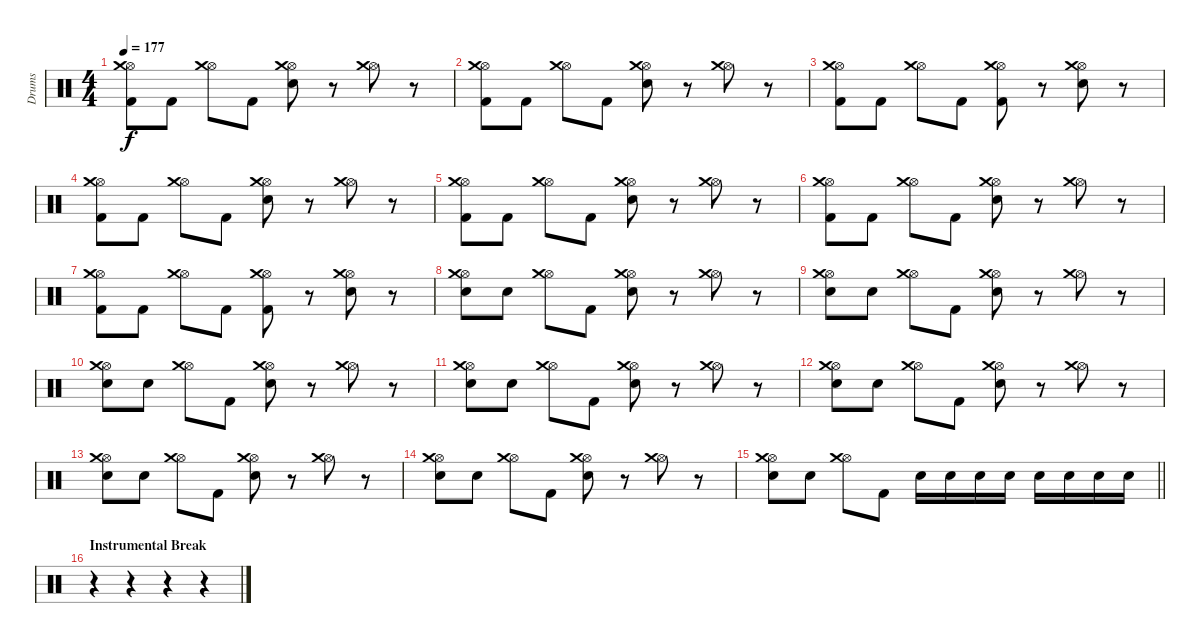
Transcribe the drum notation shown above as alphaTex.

\track ("Drums" "Drums") {instrument percussion}
\staff {score}
\articulation defaults
\ts (4 4)
\tempo 177
\clef neutral
\ks c
("Hi-Hat (open)" "Crash medium (hit)" "Kick (hit) 2").8{dy f} "Kick (hit) 2".8 ("Hi-Hat (open)" "Crash medium (hit)").8 "Kick (hit) 2".8 ("Hi-Hat (open)" "Crash medium (hit)" "Electric Snare (hit)").8 r.8 ("Hi-Hat (open)" "Crash medium (hit)").8 r.8 |
("Hi-Hat (open)" "Crash medium (hit)" "Kick (hit) 2").8 "Kick (hit) 2".8 ("Hi-Hat (open)" "Crash medium (hit)").8 "Kick (hit) 2".8 ("Hi-Hat (open)" "Crash medium (hit)" "Electric Snare (hit)").8 r.8 ("Hi-Hat (open)" "Crash medium (hit)").8 r.8 |
("Hi-Hat (open)" "Crash medium (hit)" "Kick (hit) 2").8 "Kick (hit) 2".8 ("Hi-Hat (open)" "Crash medium (hit)").8 "Kick (hit) 2".8 ("Hi-Hat (open)" "Crash medium (hit)" "Kick (hit) 2").8 r.8 ("Hi-Hat (open)" "Crash medium (hit)" "Electric Snare (hit)").8 r.8 |
("Hi-Hat (open)" "Crash medium (hit)" "Kick (hit) 2").8 "Kick (hit) 2".8 ("Hi-Hat (open)" "Crash medium (hit)").8 "Kick (hit) 2".8 ("Hi-Hat (open)" "Crash medium (hit)" "Electric Snare (hit)").8 r.8 ("Hi-Hat (open)" "Crash medium (hit)").8 r.8 |
("Hi-Hat (open)" "Crash medium (hit)" "Kick (hit) 2").8 "Kick (hit) 2".8 ("Hi-Hat (open)" "Crash medium (hit)").8 "Kick (hit) 2".8 ("Hi-Hat (open)" "Crash medium (hit)" "Electric Snare (hit)").8 r.8 ("Hi-Hat (open)" "Crash medium (hit)").8 r.8 |
("Hi-Hat (open)" "Crash medium (hit)" "Kick (hit) 2").8 "Kick (hit) 2".8 ("Hi-Hat (open)" "Crash medium (hit)").8 "Kick (hit) 2".8 ("Hi-Hat (open)" "Crash medium (hit)" "Electric Snare (hit)").8 r.8 ("Hi-Hat (open)" "Crash medium (hit)").8 r.8 |
("Hi-Hat (open)" "Crash medium (hit)" "Kick (hit) 2").8 "Kick (hit) 2".8 ("Hi-Hat (open)" "Crash medium (hit)").8 "Kick (hit) 2".8 ("Hi-Hat (open)" "Crash medium (hit)" "Kick (hit) 2").8 r.8 ("Hi-Hat (open)" "Crash medium (hit)" "Electric Snare (hit)").8 r.8 |
("Hi-Hat (open)" "Crash medium (hit)" "Electric Snare (hit)").8 "Electric Snare (hit)".8 ("Hi-Hat (open)" "Crash medium (hit)").8 "Kick (hit) 2".8 ("Hi-Hat (open)" "Crash medium (hit)" "Electric Snare (hit)").8 r.8 ("Hi-Hat (open)" "Crash medium (hit)").8 r.8 |
("Hi-Hat (open)" "Crash medium (hit)" "Electric Snare (hit)").8 "Electric Snare (hit)".8 ("Hi-Hat (open)" "Crash medium (hit)").8 "Kick (hit) 2".8 ("Hi-Hat (open)" "Crash medium (hit)" "Electric Snare (hit)").8 r.8 ("Hi-Hat (open)" "Crash medium (hit)").8 r.8 |
("Hi-Hat (open)" "Crash medium (hit)" "Electric Snare (hit)").8 "Electric Snare (hit)".8 ("Hi-Hat (open)" "Crash medium (hit)").8 "Kick (hit) 2".8 ("Hi-Hat (open)" "Crash medium (hit)" "Electric Snare (hit)").8 r.8 ("Hi-Hat (open)" "Crash medium (hit)").8 r.8 |
("Hi-Hat (open)" "Crash medium (hit)" "Electric Snare (hit)").8 "Electric Snare (hit)".8 ("Hi-Hat (open)" "Crash medium (hit)").8 "Kick (hit) 2".8 ("Hi-Hat (open)" "Crash medium (hit)" "Electric Snare (hit)").8 r.8 ("Hi-Hat (open)" "Crash medium (hit)").8 r.8 |
("Hi-Hat (open)" "Crash medium (hit)" "Electric Snare (hit)").8 "Electric Snare (hit)".8 ("Hi-Hat (open)" "Crash medium (hit)").8 "Kick (hit) 2".8 ("Hi-Hat (open)" "Crash medium (hit)" "Electric Snare (hit)").8 r.8 ("Hi-Hat (open)" "Crash medium (hit)").8 r.8 |
("Hi-Hat (open)" "Crash medium (hit)" "Electric Snare (hit)").8 "Electric Snare (hit)".8 ("Hi-Hat (open)" "Crash medium (hit)").8 "Kick (hit) 2".8 ("Hi-Hat (open)" "Crash medium (hit)" "Electric Snare (hit)").8 r.8 ("Hi-Hat (open)" "Crash medium (hit)").8 r.8 |
("Hi-Hat (open)" "Crash medium (hit)" "Electric Snare (hit)").8 "Electric Snare (hit)".8 ("Hi-Hat (open)" "Crash medium (hit)").8 "Kick (hit) 2".8 ("Hi-Hat (open)" "Crash medium (hit)" "Electric Snare (hit)").8 r.8 ("Hi-Hat (open)" "Crash medium (hit)").8 r.8 |
\barLineRight lightlight
("Hi-Hat (open)" "Crash medium (hit)" "Electric Snare (hit)").8 "Electric Snare (hit)".8 ("Hi-Hat (open)" "Crash medium (hit)").8 "Kick (hit) 2".8 "Electric Snare (hit)".16 "Electric Snare (hit)".16 "Electric Snare (hit)".16 "Electric Snare (hit)".16 "Electric Snare (hit)".16 "Electric Snare (hit)".16 "Electric Snare (hit)".16 "Electric Snare (hit)".16 |
\section ("" "Instrumental Break")
r.4 r.4 r.4 r.4
